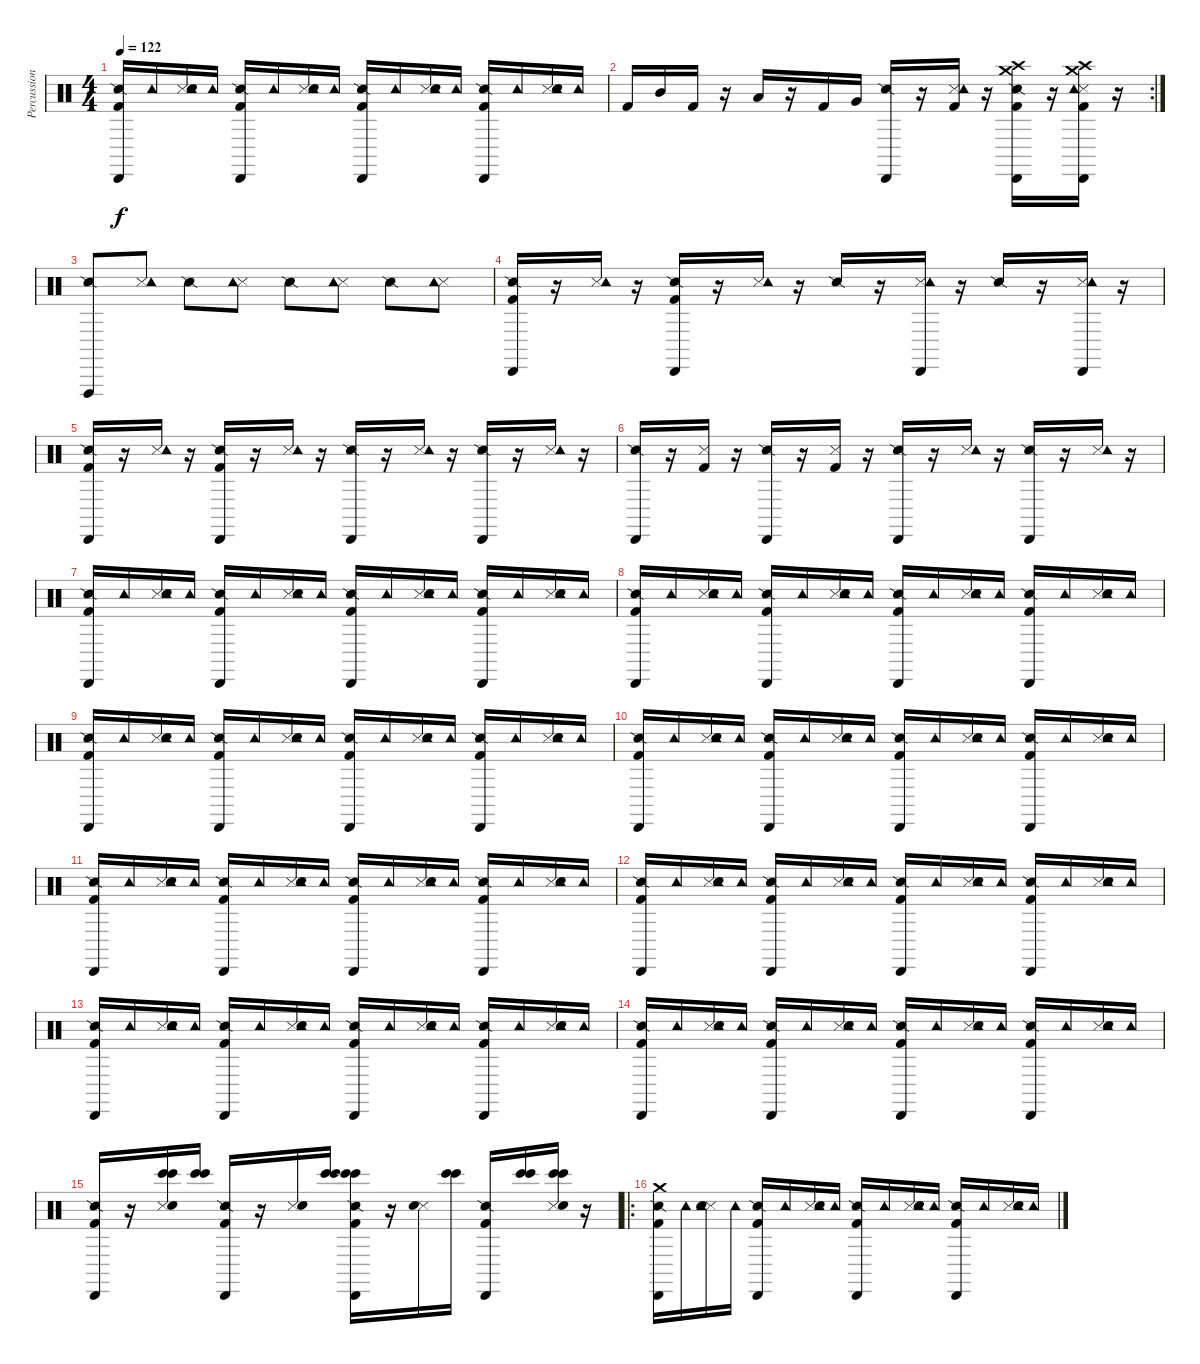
\track ("Percussion" "Percussion") {instrument percussion}
\staff {score}
\articulation defaults
\ts (4 4)
\tempo 122
\clef neutral
\ks c
("Snare (side stick) 2" "Kick (hit) 2" "Cabasa (hit)").16{dy f} "Tambourine (hit)".16 ("Snare (side stick) 3" "Snare (hit) 2" "Tambourine (hit)").16 "Tambourine (hit)".16 ("Snare (side stick) 2" "Kick (hit) 2" "Cabasa (hit)").16 "Tambourine (hit)".16 ("Snare (side stick) 3" "Snare (hit) 2" "Tambourine (hit)").16 "Tambourine (hit)".16 ("Snare (side stick) 2" "Kick (hit) 2" "Cabasa (hit)").16 "Tambourine (hit)".16 ("Snare (side stick) 3" "Snare (hit) 2" "Tambourine (hit)").16 "Tambourine (hit)".16 ("Snare (side stick) 2" "Kick (hit) 2" "Cabasa (hit)").16 "Tambourine (hit)".16 ("Snare (side stick) 3" "Snare (hit) 2" "Tambourine (hit)").16 "Tambourine (hit)".16 |
\rc 2 "Kick (hit) 2".16 "Mid Tom (hit)".16 "Kick (hit) 2".16
r.16 "Low Tom (hit)".16 r.16 "Kick (hit) 2".16 "Very Low Tom (hit)".16 ("Snare (side stick) 2" "Cabasa (hit)").16 r.16 ("Snare (side stick) 3" "Tambourine (hit)" "Kick (hit) 2").16 r.16 ("Snare (side stick) 2" "Crash medium (hit)" "Crash high (hit)" "Kick (hit) 2" "Cabasa (hit)").16 r.16 ("Snare (side stick) 3" "Crash medium (hit)" "Crash high (hit)" "Kick (hit) 2" "Tambourine (hit)" "Cabasa (hit)").16 r.16 |
("Snare (side stick) 2" "Vibraslap (hit)").8 ("Snare (side stick) 3" "Tambourine (hit)").8 "Snare (side stick) 2".8 ("Snare (side stick) 3" "Tambourine (hit)").8 "Snare (side stick) 2".8 ("Snare (side stick) 3" "Tambourine (hit)").8 "Snare (side stick) 2".8 ("Snare (side stick) 3" "Tambourine (hit)").8 |
("Snare (side stick) 2" "Kick (hit) 2" "Cabasa (hit)").16 r.16 ("Snare (side stick) 3" "Tambourine (hit)").16 r.16 ("Snare (side stick) 2" "Kick (hit) 2" "Cabasa (hit)").16 r.16 ("Snare (side stick) 3" "Tambourine (hit)").16 r.16 "Snare (side stick) 2".16 r.16 ("Snare (side stick) 3" "Tambourine (hit)" "Cabasa (hit)").16 r.16 "Snare (side stick) 2".16 r.16 ("Snare (side stick) 3" "Tambourine (hit)" "Cabasa (hit)").16 r.16 |
("Snare (side stick) 2" "Kick (hit) 2" "Cabasa (hit)").16 r.16 ("Snare (side stick) 3" "Tambourine (hit)").16 r.16 ("Snare (side stick) 2" "Kick (hit) 2" "Cabasa (hit)").16 r.16 ("Snare (side stick) 3" "Tambourine (hit)").16 r.16 ("Snare (side stick) 2" "Cabasa (hit)").16 r.16 ("Snare (side stick) 3" "Tambourine (hit)").16 r.16 ("Snare (side stick) 2" "Cabasa (hit)").16 r.16 ("Snare (side stick) 3" "Tambourine (hit)").16 r.16 |
("Snare (side stick) 2" "Cabasa (hit)").16 r.16 ("Snare (side stick) 3" "Kick (hit) 2").16 r.16 ("Snare (side stick) 2" "Cabasa (hit)").16 r.16 ("Snare (side stick) 3" "Kick (hit) 2").16 r.16 ("Snare (side stick) 2" "Cabasa (hit)").16 r.16 ("Snare (side stick) 3" "Tambourine (hit)").16 r.16 ("Snare (side stick) 2" "Cabasa (hit)").16 r.16 ("Snare (side stick) 3" "Tambourine (hit)").16 r.16 |
("Snare (side stick) 2" "Kick (hit) 2" "Cabasa (hit)").16 "Tambourine (hit)".16 ("Snare (side stick) 3" "Snare (hit) 2" "Tambourine (hit)").16 "Tambourine (hit)".16 ("Snare (side stick) 2" "Kick (hit) 2" "Cabasa (hit)").16 "Tambourine (hit)".16 ("Snare (side stick) 3" "Snare (hit) 2" "Tambourine (hit)").16 "Tambourine (hit)".16 ("Snare (side stick) 2" "Kick (hit) 2" "Cabasa (hit)").16 "Tambourine (hit)".16 ("Snare (side stick) 3" "Snare (hit) 2" "Tambourine (hit)").16 "Tambourine (hit)".16 ("Snare (side stick) 2" "Kick (hit) 2" "Cabasa (hit)").16 "Tambourine (hit)".16 ("Snare (side stick) 3" "Snare (hit) 2" "Tambourine (hit)").16 "Tambourine (hit)".16 |
("Snare (side stick) 2" "Kick (hit) 2" "Cabasa (hit)").16 "Tambourine (hit)".16 ("Snare (side stick) 3" "Snare (hit) 2" "Tambourine (hit)").16 "Tambourine (hit)".16 ("Snare (side stick) 2" "Kick (hit) 2" "Cabasa (hit)").16 "Tambourine (hit)".16 ("Snare (side stick) 3" "Snare (hit) 2" "Tambourine (hit)").16 "Tambourine (hit)".16 ("Snare (side stick) 2" "Kick (hit) 2" "Cabasa (hit)").16 "Tambourine (hit)".16 ("Snare (side stick) 3" "Snare (hit) 2" "Tambourine (hit)").16 "Tambourine (hit)".16 ("Snare (side stick) 2" "Kick (hit) 2" "Cabasa (hit)").16 "Tambourine (hit)".16 ("Snare (side stick) 3" "Snare (hit) 2" "Tambourine (hit)").16 "Tambourine (hit)".16 |
("Snare (side stick) 2" "Kick (hit) 2" "Cabasa (hit)").16 "Tambourine (hit)".16 ("Snare (side stick) 3" "Snare (hit) 2" "Tambourine (hit)").16 "Tambourine (hit)".16 ("Snare (side stick) 2" "Kick (hit) 2" "Cabasa (hit)").16 "Tambourine (hit)".16 ("Snare (side stick) 3" "Snare (hit) 2" "Tambourine (hit)").16 "Tambourine (hit)".16 ("Snare (side stick) 2" "Kick (hit) 2" "Cabasa (hit)").16 "Tambourine (hit)".16 ("Snare (side stick) 3" "Snare (hit) 2" "Tambourine (hit)").16 "Tambourine (hit)".16 ("Snare (side stick) 2" "Kick (hit) 2" "Cabasa (hit)").16 "Tambourine (hit)".16 ("Snare (side stick) 3" "Snare (hit) 2" "Tambourine (hit)").16 "Tambourine (hit)".16 |
("Snare (side stick) 2" "Kick (hit) 2" "Cabasa (hit)").16 "Tambourine (hit)".16 ("Snare (side stick) 3" "Snare (hit) 2" "Tambourine (hit)").16 "Tambourine (hit)".16 ("Snare (side stick) 2" "Kick (hit) 2" "Cabasa (hit)").16 "Tambourine (hit)".16 ("Snare (side stick) 3" "Snare (hit) 2" "Tambourine (hit)").16 "Tambourine (hit)".16 ("Snare (side stick) 2" "Kick (hit) 2" "Cabasa (hit)").16 "Tambourine (hit)".16 ("Snare (side stick) 3" "Snare (hit) 2" "Tambourine (hit)").16 "Tambourine (hit)".16 ("Snare (side stick) 2" "Kick (hit) 2" "Cabasa (hit)").16 "Tambourine (hit)".16 ("Snare (side stick) 3" "Snare (hit) 2" "Tambourine (hit)").16 "Tambourine (hit)".16 |
("Snare (side stick) 2" "Kick (hit) 2" "Cabasa (hit)").16 "Tambourine (hit)".16 ("Snare (side stick) 3" "Snare (hit) 2" "Tambourine (hit)").16 "Tambourine (hit)".16 ("Snare (side stick) 2" "Kick (hit) 2" "Cabasa (hit)").16 "Tambourine (hit)".16 ("Snare (side stick) 3" "Snare (hit) 2" "Tambourine (hit)").16 "Tambourine (hit)".16 ("Snare (side stick) 2" "Kick (hit) 2" "Cabasa (hit)").16 "Tambourine (hit)".16 ("Snare (side stick) 3" "Snare (hit) 2" "Tambourine (hit)").16 "Tambourine (hit)".16 ("Snare (side stick) 2" "Kick (hit) 2" "Cabasa (hit)").16 "Tambourine (hit)".16 ("Snare (side stick) 3" "Snare (hit) 2" "Tambourine (hit)").16 "Tambourine (hit)".16 |
("Snare (side stick) 2" "Kick (hit) 2" "Cabasa (hit)").16 "Tambourine (hit)".16 ("Snare (side stick) 3" "Snare (hit) 2" "Tambourine (hit)").16 "Tambourine (hit)".16 ("Snare (side stick) 2" "Kick (hit) 2" "Cabasa (hit)").16 "Tambourine (hit)".16 ("Snare (side stick) 3" "Snare (hit) 2" "Tambourine (hit)").16 "Tambourine (hit)".16 ("Snare (side stick) 2" "Kick (hit) 2" "Cabasa (hit)").16 "Tambourine (hit)".16 ("Snare (side stick) 3" "Snare (hit) 2" "Tambourine (hit)").16 "Tambourine (hit)".16 ("Snare (side stick) 2" "Kick (hit) 2" "Cabasa (hit)").16 "Tambourine (hit)".16 ("Snare (side stick) 3" "Snare (hit) 2" "Tambourine (hit)").16 "Tambourine (hit)".16 |
("Snare (side stick) 2" "Kick (hit) 2" "Cabasa (hit)").16 "Tambourine (hit)".16 ("Snare (side stick) 3" "Snare (hit) 2" "Tambourine (hit)").16 "Tambourine (hit)".16 ("Snare (side stick) 2" "Kick (hit) 2" "Cabasa (hit)").16 "Tambourine (hit)".16 ("Snare (side stick) 3" "Snare (hit) 2" "Tambourine (hit)").16 "Tambourine (hit)".16 ("Snare (side stick) 2" "Kick (hit) 2" "Cabasa (hit)").16 "Tambourine (hit)".16 ("Snare (side stick) 3" "Snare (hit) 2" "Tambourine (hit)").16 "Tambourine (hit)".16 ("Snare (side stick) 2" "Kick (hit) 2" "Cabasa (hit)").16 "Tambourine (hit)".16 ("Snare (side stick) 3" "Snare (hit) 2" "Tambourine (hit)").16 "Tambourine (hit)".16 |
("Snare (side stick) 2" "Kick (hit) 2" "Cabasa (hit)").16 "Tambourine (hit)".16 ("Snare (side stick) 3" "Snare (hit) 2" "Tambourine (hit)").16 "Tambourine (hit)".16 ("Snare (side stick) 2" "Kick (hit) 2" "Cabasa (hit)").16 "Tambourine (hit)".16 ("Snare (side stick) 3" "Snare (hit) 2" "Tambourine (hit)").16 "Tambourine (hit)".16 ("Snare (side stick) 2" "Kick (hit) 2" "Cabasa (hit)").16 "Tambourine (hit)".16 ("Snare (side stick) 3" "Snare (hit) 2" "Tambourine (hit)").16 "Tambourine (hit)".16 ("Snare (side stick) 2" "Kick (hit) 2" "Cabasa (hit)").16 "Tambourine (hit)".16 ("Snare (side stick) 3" "Snare (hit) 2" "Tambourine (hit)").16 "Tambourine (hit)".16 |
("Snare (side stick) 2" "Kick (hit) 2" "Cabasa (hit)").16 r.16 ("Snare (side stick) 3" "Bongo High (hit)" "Bongo High (hit)" "Snare (hit) 2").16 ("Bongo High (hit)" "Bongo High (hit)").16 ("Snare (side stick) 2" "Kick (hit) 2" "Cabasa (hit)").16 r.16 ("Snare (side stick) 3" "Snare (hit) 2").16 ("Bongo High (hit)" "Bongo High (hit)").16 ("Snare (side stick) 2" "Bongo High (hit)" "Bongo High (hit)" "Kick (hit) 2" "Cabasa (hit)").16 r.16 ("Snare (side stick) 3" "Snare (hit) 2").16 ("Bongo High (hit)" "Bongo High (hit)").16 ("Snare (side stick) 2" "Kick (hit) 2" "Cabasa (hit)").16 ("Bongo High (hit)" "Bongo High (hit)").16 ("Snare (side stick) 3" "Bongo High (hit)" "Bongo High (hit)" "Snare (hit) 2").16 r.16 |
\ro
("Snare (side stick) 2" "Crash medium (hit)" "Kick (hit) 2" "Cabasa (hit)").16 "Tambourine (hit)".16 ("Snare (side stick) 3" "Snare (hit) 2" "Tambourine (hit)").16 "Tambourine (hit)".16 ("Snare (side stick) 2" "Kick (hit) 2" "Cabasa (hit)").16 "Tambourine (hit)".16 ("Snare (side stick) 3" "Snare (hit) 2" "Tambourine (hit)").16 "Tambourine (hit)".16 ("Snare (side stick) 2" "Kick (hit) 2" "Cabasa (hit)").16 "Tambourine (hit)".16 ("Snare (side stick) 3" "Snare (hit) 2" "Tambourine (hit)").16 "Tambourine (hit)".16 ("Snare (side stick) 2" "Kick (hit) 2" "Cabasa (hit)").16 "Tambourine (hit)".16 ("Snare (side stick) 3" "Snare (hit) 2" "Tambourine (hit)").16 "Tambourine (hit)".16
